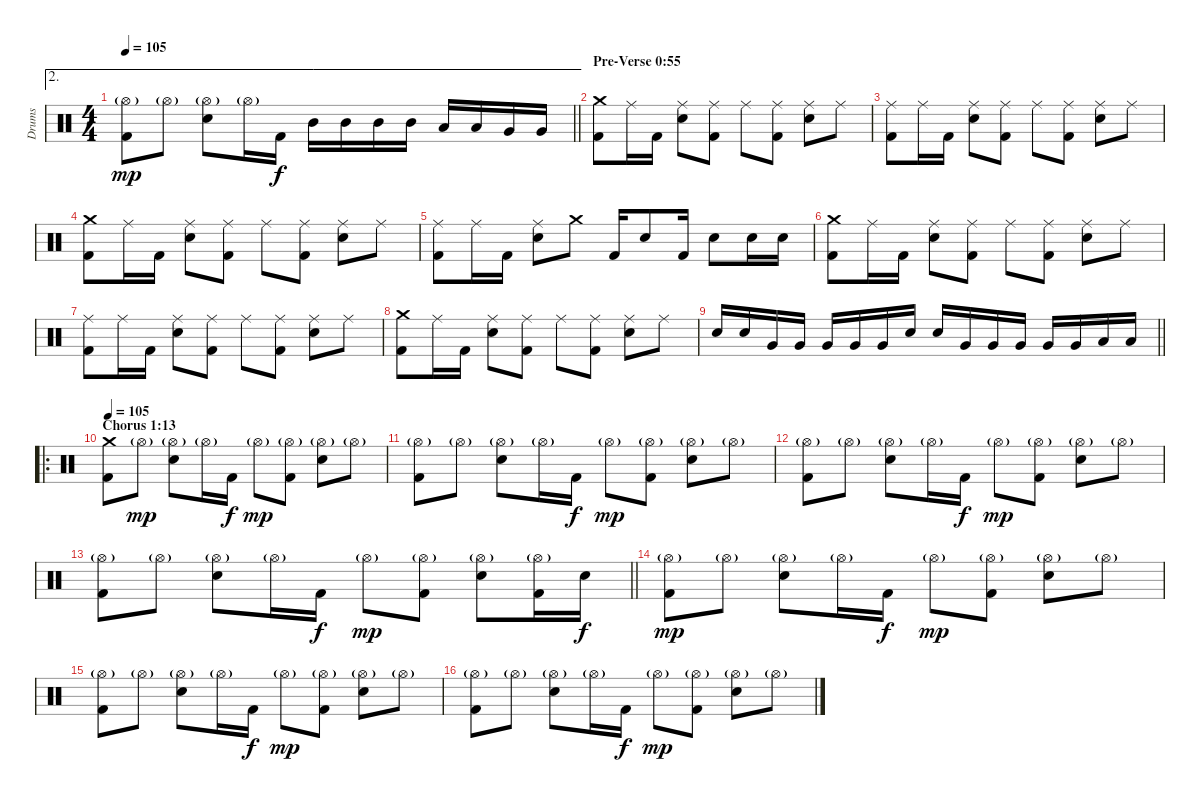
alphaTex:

\track ("Drums" "Drums") {instrument percussion}
\staff {score}
\articulation defaults
\ae 2
\ts (4 4)
\tempo 105
\clef neutral
\barLineRight lightlight
\ks c
("Hi-Hat (open)"{g} "Kick (hit) 2").8{dy mp} "Hi-Hat (open)"{g}.8 ("Hi-Hat (open)"{g} "Electric Snare (hit)").8 "Hi-Hat (open)"{g}.16 "Kick (hit) 2".16{dy f} "Mid Tom (hit)".16 "Mid Tom (hit)".16 "Mid Tom (hit)".16 "Mid Tom (hit)".16 "Low Tom (hit)".16 "Low Tom (hit)".16 "Very Low Tom (hit)".16 "Very Low Tom (hit)".16 |
\section ("" "Pre-Verse 0:55")
("Crash medium (hit)" "Kick (hit) 2").8 "Ride (middle)".16 "Kick (hit) 2".16 ("Ride (middle)" "Electric Snare (hit)").8 ("Ride (middle)" "Kick (hit) 2").8 "Ride (middle)".8 ("Ride (middle)" "Kick (hit) 2").8 ("Ride (middle)" "Electric Snare (hit)").8 "Ride (middle)".8 |
("Ride (middle)" "Kick (hit) 2").8 "Ride (middle)".16 "Kick (hit) 2".16 ("Ride (middle)" "Electric Snare (hit)").8 ("Ride (middle)" "Kick (hit) 2").8 "Ride (middle)".8 ("Ride (middle)" "Kick (hit) 2").8 ("Ride (middle)" "Electric Snare (hit)").8 "Ride (middle)".8 |
("Crash medium (hit)" "Kick (hit) 2").8 "Ride (middle)".16 "Kick (hit) 2".16 ("Ride (middle)" "Electric Snare (hit)").8 ("Ride (middle)" "Kick (hit) 2").8 "Ride (middle)".8 ("Ride (middle)" "Kick (hit) 2").8 ("Ride (middle)" "Electric Snare (hit)").8 "Ride (middle)".8 |
("Ride (middle)" "Kick (hit) 2").8 "Ride (middle)".16 "Kick (hit) 2".16 ("Ride (middle)" "Electric Snare (hit)").8 "Crash medium (hit)".8 "Kick (hit) 2".16 "Electric Snare (hit)".8 "Kick (hit) 2".16 "Electric Snare (hit)".8 "Electric Snare (hit)".16 "Electric Snare (hit)".16 |
("Crash medium (hit)" "Kick (hit) 2").8 "Ride (middle)".16 "Kick (hit) 2".16 ("Ride (middle)" "Electric Snare (hit)").8 ("Ride (middle)" "Kick (hit) 2").8 "Ride (middle)".8 ("Ride (middle)" "Kick (hit) 2").8 ("Ride (middle)" "Electric Snare (hit)").8 "Ride (middle)".8 |
("Ride (middle)" "Kick (hit) 2").8 "Ride (middle)".16 "Kick (hit) 2".16 ("Ride (middle)" "Electric Snare (hit)").8 ("Ride (middle)" "Kick (hit) 2").8 "Ride (middle)".8 ("Ride (middle)" "Kick (hit) 2").8 ("Ride (middle)" "Electric Snare (hit)").8 "Ride (middle)".8 |
("Crash medium (hit)" "Kick (hit) 2").8 "Ride (middle)".16 "Kick (hit) 2".16 ("Ride (middle)" "Electric Snare (hit)").8 ("Ride (middle)" "Kick (hit) 2").8 "Ride (middle)".8 ("Ride (middle)" "Kick (hit) 2").8 ("Ride (middle)" "Electric Snare (hit)").8 "Ride (middle)".8 |
\barLineRight lightlight "Electric Snare (hit)".16 "Electric Snare (hit)".16 "Very Low Tom (hit)".16 "Very Low Tom (hit)".16 "Very Low Tom (hit)".16 "Very Low Tom (hit)".16 "Very Low Tom (hit)".16 "Electric Snare (hit)".16 "Electric Snare (hit)".16 "Very Low Tom (hit)".16 "Very Low Tom (hit)".16 "Very Low Tom (hit)".16 "Very Low Tom (hit)".16 "Very Low Tom (hit)".16 "Low Tom (hit)".16 "Low Tom (hit)".16
|
\ro
\section ("" "Chorus 1:13")
\tempo 105
("Crash medium (hit)" "Kick (hit) 2").8 "Hi-Hat (open)"{g}.8{dy mp} ("Hi-Hat (open)"{g} "Electric Snare (hit)").8 "Hi-Hat (open)"{g}.16 "Kick (hit) 2".16{dy f} "Hi-Hat (open)"{g}.8{dy mp} ("Hi-Hat (open)"{g} "Kick (hit) 2").8 ("Hi-Hat (open)"{g} "Electric Snare (hit)").8 "Hi-Hat (open)"{g}.8 |
("Hi-Hat (open)"{g} "Kick (hit) 2").8 "Hi-Hat (open)"{g}.8 ("Hi-Hat (open)"{g} "Electric Snare (hit)").8 "Hi-Hat (open)"{g}.16 "Kick (hit) 2".16{dy f} "Hi-Hat (open)"{g}.8{dy mp} ("Hi-Hat (open)"{g} "Kick (hit) 2").8 ("Hi-Hat (open)"{g} "Electric Snare (hit)").8 "Hi-Hat (open)"{g}.8 |
("Hi-Hat (open)"{g} "Kick (hit) 2").8 "Hi-Hat (open)"{g}.8 ("Hi-Hat (open)"{g} "Electric Snare (hit)").8 "Hi-Hat (open)"{g}.16 "Kick (hit) 2".16{dy f} "Hi-Hat (open)"{g}.8{dy mp} ("Hi-Hat (open)"{g} "Kick (hit) 2").8 ("Hi-Hat (open)"{g} "Electric Snare (hit)").8 "Hi-Hat (open)"{g}.8 |
\barLineRight lightlight
("Hi-Hat (open)"{g} "Kick (hit) 2").8 "Hi-Hat (open)"{g}.8 ("Hi-Hat (open)"{g} "Electric Snare (hit)").8 "Hi-Hat (open)"{g}.16 "Kick (hit) 2".16{dy f} "Hi-Hat (open)"{g}.8{dy mp} ("Hi-Hat (open)"{g} "Kick (hit) 2").8 ("Hi-Hat (open)"{g} "Electric Snare (hit)").8 ("Hi-Hat (open)"{g} "Kick (hit) 2").16 "Electric Snare (hit)".16{dy f} |
("Hi-Hat (open)"{g} "Kick (hit) 2").8{dy mp} "Hi-Hat (open)"{g}.8 ("Hi-Hat (open)"{g} "Electric Snare (hit)").8 "Hi-Hat (open)"{g}.16 "Kick (hit) 2".16{dy f} "Hi-Hat (open)"{g}.8{dy mp} ("Hi-Hat (open)"{g} "Kick (hit) 2").8 ("Hi-Hat (open)"{g} "Electric Snare (hit)").8 "Hi-Hat (open)"{g}.8 |
("Hi-Hat (open)"{g} "Kick (hit) 2").8 "Hi-Hat (open)"{g}.8 ("Hi-Hat (open)"{g} "Electric Snare (hit)").8 "Hi-Hat (open)"{g}.16 "Kick (hit) 2".16{dy f} "Hi-Hat (open)"{g}.8{dy mp} ("Hi-Hat (open)"{g} "Kick (hit) 2").8 ("Hi-Hat (open)"{g} "Electric Snare (hit)").8 "Hi-Hat (open)"{g}.8 |
("Hi-Hat (open)"{g} "Kick (hit) 2").8 "Hi-Hat (open)"{g}.8 ("Hi-Hat (open)"{g} "Electric Snare (hit)").8 "Hi-Hat (open)"{g}.16 "Kick (hit) 2".16{dy f} "Hi-Hat (open)"{g}.8{dy mp} ("Hi-Hat (open)"{g} "Kick (hit) 2").8 ("Hi-Hat (open)"{g} "Electric Snare (hit)").8 "Hi-Hat (open)"{g}.8
